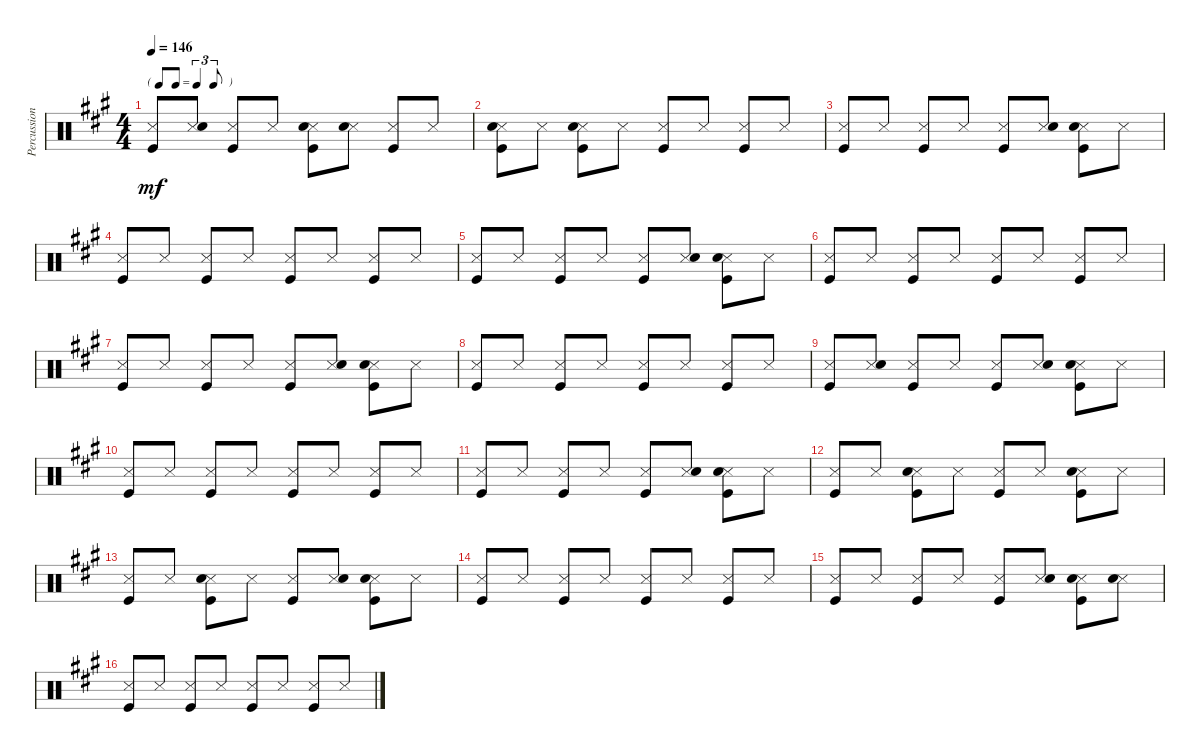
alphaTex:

\track ("Percussion" "Percussion") {instrument percussion}
\staff {score}
\articulation defaults
\ts (4 4)
\tf triplet8th
\tempo 146
\clef neutral
\ks a
("Snare (side stick) 3" "Kick (hit)").8{dy mf} ("Snare (side stick) 3" "Snare (hit) 2").8 ("Snare (side stick) 3" "Kick (hit)").8 "Snare (side stick) 3".8 ("Snare (side stick) 3" "Snare (hit) 2" "Kick (hit)").8 ("Snare (side stick) 3" "Snare (hit) 2").8 ("Snare (side stick) 3" "Kick (hit)").8 "Snare (side stick) 3".8 |
("Snare (side stick) 3" "Snare (hit) 2" "Kick (hit)").8 "Snare (side stick) 3".8 ("Snare (side stick) 3" "Snare (hit) 2" "Kick (hit)").8 "Snare (side stick) 3".8 ("Snare (side stick) 3" "Kick (hit)").8 "Snare (side stick) 3".8 ("Snare (side stick) 3" "Kick (hit)").8 "Snare (side stick) 3".8 |
("Snare (side stick) 3" "Kick (hit)").8 "Snare (side stick) 3".8 ("Snare (side stick) 3" "Kick (hit)").8 "Snare (side stick) 3".8 ("Snare (side stick) 3" "Kick (hit)").8 ("Snare (side stick) 3" "Snare (hit) 2").8 ("Snare (side stick) 3" "Snare (hit) 2" "Kick (hit)").8 "Snare (side stick) 3".8 |
("Snare (side stick) 3" "Kick (hit)").8 "Snare (side stick) 3".8 ("Snare (side stick) 3" "Kick (hit)").8 "Snare (side stick) 3".8 ("Snare (side stick) 3" "Kick (hit)").8 "Snare (side stick) 3".8 ("Snare (side stick) 3" "Kick (hit)").8 "Snare (side stick) 3".8 |
("Snare (side stick) 3" "Kick (hit)").8 "Snare (side stick) 3".8 ("Snare (side stick) 3" "Kick (hit)").8 "Snare (side stick) 3".8 ("Snare (side stick) 3" "Kick (hit)").8 ("Snare (side stick) 3" "Snare (hit) 2").8 ("Snare (side stick) 3" "Snare (hit) 2" "Kick (hit)").8 "Snare (side stick) 3".8 |
("Snare (side stick) 3" "Kick (hit)").8 "Snare (side stick) 3".8 ("Snare (side stick) 3" "Kick (hit)").8 "Snare (side stick) 3".8 ("Snare (side stick) 3" "Kick (hit)").8 "Snare (side stick) 3".8 ("Snare (side stick) 3" "Kick (hit)").8 "Snare (side stick) 3".8 |
("Snare (side stick) 3" "Kick (hit)").8 "Snare (side stick) 3".8 ("Snare (side stick) 3" "Kick (hit)").8 "Snare (side stick) 3".8 ("Snare (side stick) 3" "Kick (hit)").8 ("Snare (side stick) 3" "Snare (hit) 2").8 ("Snare (side stick) 3" "Snare (hit) 2" "Kick (hit)").8 "Snare (side stick) 3".8 |
("Snare (side stick) 3" "Kick (hit)").8 "Snare (side stick) 3".8 ("Snare (side stick) 3" "Kick (hit)").8 "Snare (side stick) 3".8 ("Snare (side stick) 3" "Kick (hit)").8 "Snare (side stick) 3".8 ("Snare (side stick) 3" "Kick (hit)").8 "Snare (side stick) 3".8 |
("Snare (side stick) 3" "Kick (hit)").8 ("Snare (side stick) 3" "Snare (hit) 2").8 ("Snare (side stick) 3" "Kick (hit)").8 "Snare (side stick) 3".8 ("Snare (side stick) 3" "Kick (hit)").8 ("Snare (side stick) 3" "Snare (hit) 2").8 ("Snare (side stick) 3" "Snare (hit) 2" "Kick (hit)").8 "Snare (side stick) 3".8 |
("Snare (side stick) 3" "Kick (hit)").8 "Snare (side stick) 3".8 ("Snare (side stick) 3" "Kick (hit)").8 "Snare (side stick) 3".8 ("Snare (side stick) 3" "Kick (hit)").8 "Snare (side stick) 3".8 ("Snare (side stick) 3" "Kick (hit)").8 "Snare (side stick) 3".8 |
("Snare (side stick) 3" "Kick (hit)").8 "Snare (side stick) 3".8 ("Snare (side stick) 3" "Kick (hit)").8 "Snare (side stick) 3".8 ("Snare (side stick) 3" "Kick (hit)").8 ("Snare (side stick) 3" "Snare (hit) 2").8 ("Snare (side stick) 3" "Snare (hit) 2" "Kick (hit)").8 "Snare (side stick) 3".8 |
("Snare (side stick) 3" "Kick (hit)").8 "Snare (side stick) 3".8 ("Snare (side stick) 3" "Snare (hit) 2" "Kick (hit)").8 "Snare (side stick) 3".8 ("Snare (side stick) 3" "Kick (hit)").8 "Snare (side stick) 3".8 ("Snare (side stick) 3" "Snare (hit) 2" "Kick (hit)").8 "Snare (side stick) 3".8 |
("Snare (side stick) 3" "Kick (hit)").8 "Snare (side stick) 3".8 ("Snare (side stick) 3" "Snare (hit) 2" "Kick (hit)").8 "Snare (side stick) 3".8 ("Snare (side stick) 3" "Kick (hit)").8 ("Snare (side stick) 3" "Snare (hit) 2").8 ("Snare (side stick) 3" "Snare (hit) 2" "Kick (hit)").8 "Snare (side stick) 3".8 |
("Snare (side stick) 3" "Kick (hit)").8 "Snare (side stick) 3".8 ("Snare (side stick) 3" "Kick (hit)").8 "Snare (side stick) 3".8 ("Snare (side stick) 3" "Kick (hit)").8 "Snare (side stick) 3".8 ("Snare (side stick) 3" "Kick (hit)").8 "Snare (side stick) 3".8 |
("Snare (side stick) 3" "Kick (hit)").8 "Snare (side stick) 3".8 ("Snare (side stick) 3" "Kick (hit)").8 "Snare (side stick) 3".8 ("Snare (side stick) 3" "Kick (hit)").8 ("Snare (side stick) 3" "Snare (hit) 2").8 ("Snare (side stick) 3" "Snare (hit) 2" "Kick (hit)").8 ("Snare (side stick) 3" "Snare (hit) 2").8 |
("Snare (side stick) 3" "Kick (hit)").8 "Snare (side stick) 3".8 ("Snare (side stick) 3" "Kick (hit)").8 "Snare (side stick) 3".8 ("Snare (side stick) 3" "Kick (hit)").8 "Snare (side stick) 3".8 ("Snare (side stick) 3" "Kick (hit)").8 "Snare (side stick) 3".8
